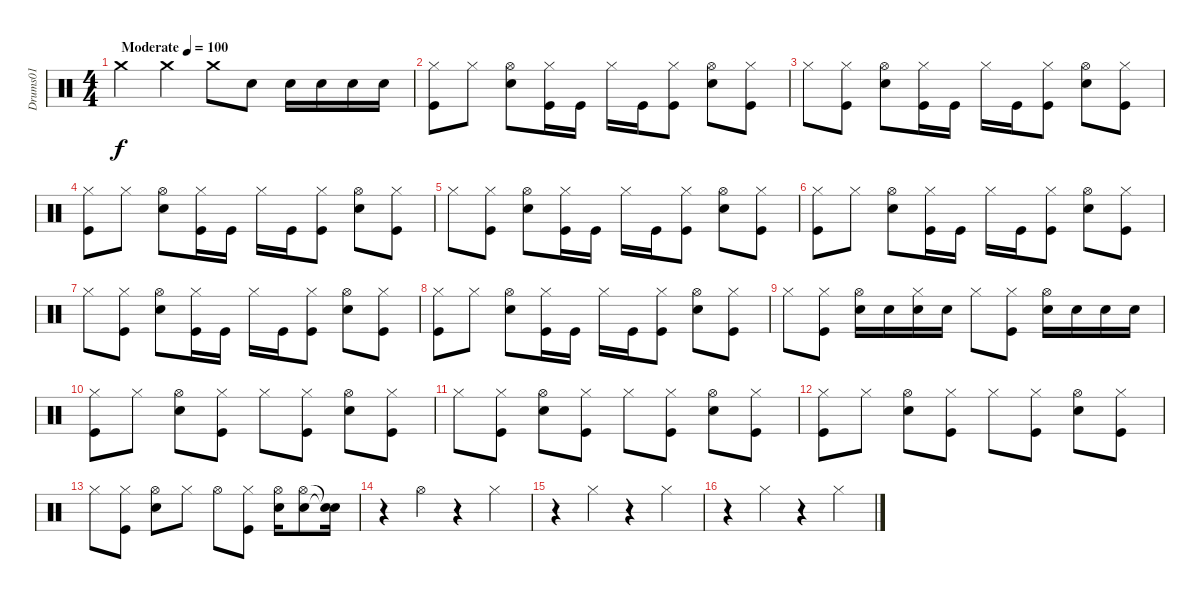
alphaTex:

\track ("Drums01" "Drums01") {instrument percussion}
\staff {score}
\articulation defaults
\ts (4 4)
\tempo (100 "Moderate")
\clef neutral
\ks c "Crash medium (hit)".4{dy f} "Crash medium (hit)".4 "Crash medium (hit)".8 "Snare (hit) 2".8 "Snare (hit) 2".16 "Snare (hit) 2".16 "Snare (hit) 2".16 "Snare (hit) 2".16
|
("Hi-Hat (closed)" "Kick (hit)").8 "Hi-Hat (closed)".8 ("Hi-Hat (open)" "Snare (hit) 2").8 ("Hi-Hat (closed)" "Kick (hit)").16 "Kick (hit)".16 "Hi-Hat (closed)".16 "Kick (hit)".16 ("Hi-Hat (closed)" "Kick (hit)").8 ("Hi-Hat (open)" "Snare (hit) 2").8 ("Hi-Hat (closed)" "Kick (hit)").8 |
"Hi-Hat (closed)".8 ("Hi-Hat (closed)" "Kick (hit)").8 ("Hi-Hat (open)" "Snare (hit) 2").8 ("Hi-Hat (closed)" "Kick (hit)").16 "Kick (hit)".16 "Hi-Hat (closed)".16 "Kick (hit)".16 ("Hi-Hat (closed)" "Kick (hit)").8 ("Hi-Hat (open)" "Snare (hit) 2").8 ("Hi-Hat (closed)" "Kick (hit)").8 |
("Hi-Hat (closed)" "Kick (hit)").8 "Hi-Hat (closed)".8 ("Hi-Hat (open)" "Snare (hit) 2").8 ("Hi-Hat (closed)" "Kick (hit)").16 "Kick (hit)".16 "Hi-Hat (closed)".16 "Kick (hit)".16 ("Hi-Hat (closed)" "Kick (hit)").8 ("Hi-Hat (open)" "Snare (hit) 2").8 ("Hi-Hat (closed)" "Kick (hit)").8 |
"Hi-Hat (closed)".8 ("Hi-Hat (closed)" "Kick (hit)").8 ("Hi-Hat (open)" "Snare (hit) 2").8 ("Hi-Hat (closed)" "Kick (hit)").16 "Kick (hit)".16 "Hi-Hat (closed)".16 "Kick (hit)".16 ("Hi-Hat (closed)" "Kick (hit)").8 ("Hi-Hat (open)" "Snare (hit) 2").8 ("Hi-Hat (closed)" "Kick (hit)").8 |
("Hi-Hat (closed)" "Kick (hit)").8 "Hi-Hat (closed)".8 ("Hi-Hat (open)" "Snare (hit) 2").8 ("Hi-Hat (closed)" "Kick (hit)").16 "Kick (hit)".16 "Hi-Hat (closed)".16 "Kick (hit)".16 ("Hi-Hat (closed)" "Kick (hit)").8 ("Hi-Hat (open)" "Snare (hit) 2").8 ("Hi-Hat (closed)" "Kick (hit)").8 |
"Hi-Hat (closed)".8 ("Hi-Hat (closed)" "Kick (hit)").8 ("Hi-Hat (open)" "Snare (hit) 2").8 ("Hi-Hat (closed)" "Kick (hit)").16 "Kick (hit)".16 "Hi-Hat (closed)".16 "Kick (hit)".16 ("Hi-Hat (closed)" "Kick (hit)").8 ("Hi-Hat (open)" "Snare (hit) 2").8 ("Hi-Hat (closed)" "Kick (hit)").8 |
("Hi-Hat (closed)" "Kick (hit)").8 "Hi-Hat (closed)".8 ("Hi-Hat (open)" "Snare (hit) 2").8 ("Hi-Hat (closed)" "Kick (hit)").16 "Kick (hit)".16 "Hi-Hat (closed)".16 "Kick (hit)".16 ("Hi-Hat (closed)" "Kick (hit)").8 ("Hi-Hat (open)" "Snare (hit) 2").8 ("Hi-Hat (closed)" "Kick (hit)").8 |
"Hi-Hat (closed)".8 ("Hi-Hat (closed)" "Kick (hit)").8 ("Hi-Hat (open)" "Snare (hit) 2").16 "Snare (hit) 2".16 ("Hi-Hat (closed)" "Snare (hit) 2").16 "Snare (hit) 2".16 "Hi-Hat (closed)".8 ("Hi-Hat (closed)" "Kick (hit)").8 ("Hi-Hat (open)" "Snare (hit) 2").16 "Snare (hit) 2".16 "Snare (hit) 2".16 "Snare (hit) 2".16 |
("Hi-Hat (closed)" "Kick (hit)").8 "Hi-Hat (closed)".8 ("Hi-Hat (open)" "Snare (hit) 2").8 ("Hi-Hat (closed)" "Kick (hit)").8 "Hi-Hat (closed)".8 ("Hi-Hat (closed)" "Kick (hit)").8 ("Hi-Hat (open)" "Snare (hit) 2").8 ("Hi-Hat (closed)" "Kick (hit)").8 |
"Hi-Hat (closed)".8 ("Hi-Hat (closed)" "Kick (hit)").8 ("Hi-Hat (open)" "Snare (hit) 2").8 ("Hi-Hat (closed)" "Kick (hit)").8 "Hi-Hat (closed)".8 ("Hi-Hat (closed)" "Kick (hit)").8 ("Hi-Hat (open)" "Snare (hit) 2").8 ("Hi-Hat (closed)" "Kick (hit)").8 |
("Hi-Hat (closed)" "Kick (hit)").8 "Hi-Hat (closed)".8 ("Hi-Hat (open)" "Snare (hit) 2").8 ("Hi-Hat (closed)" "Kick (hit)").8 "Hi-Hat (closed)".8 ("Hi-Hat (closed)" "Kick (hit)").8 ("Hi-Hat (open)" "Snare (hit) 2").8 ("Hi-Hat (closed)" "Kick (hit)").8 |
"Hi-Hat (closed)".8 ("Hi-Hat (closed)" "Kick (hit)").8 ("Hi-Hat (open)" "Snare (hit) 2").8 "Hi-Hat (closed)".8 "Hi-Hat (open)".8 ("Hi-Hat (closed)" "Kick (hit)").8 ("Hi-Hat (open)" "Snare (hit) 2").16 ("Hi-Hat (open)" "Snare (hit) 2").8 ("Snare (hit)"{t} "Snare (hit)"{t}).16 |
r.4 "Hi-Hat (open)".4 r.4 "Hi-Hat (closed)".4 |
r.4 "Hi-Hat (closed)".4 r.4 "Hi-Hat (closed)".4 |
r.4 "Hi-Hat (closed)".4 r.4 "Hi-Hat (closed)".4
